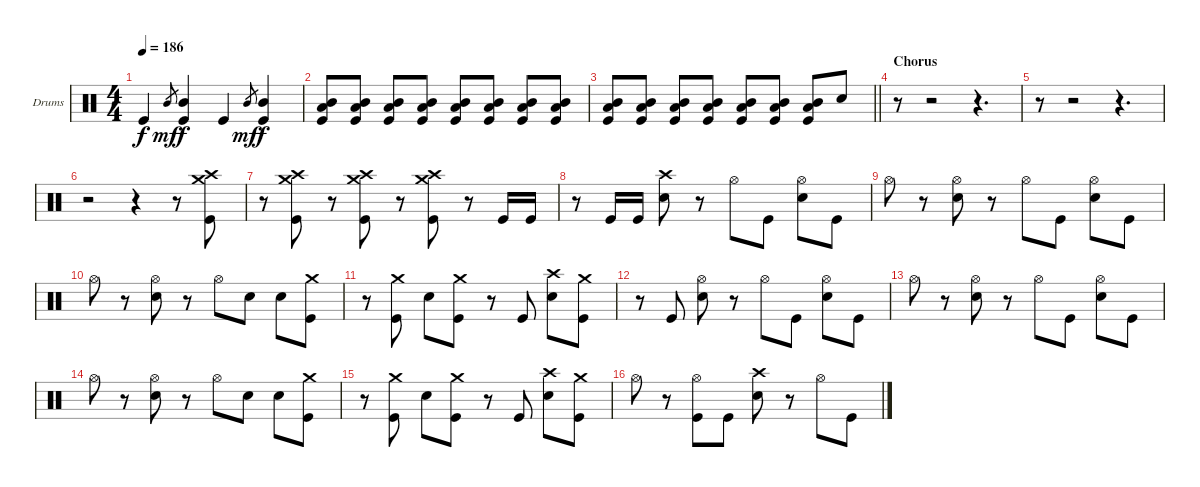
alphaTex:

\bracketExtendMode groupsimilarinstruments
\firstSystemTrackNameOrientation horizontal
\otherSystemsTrackNameOrientation horizontal
\track ("Drumkit" "Drums") {instrument percussion}
\staff {score}
\articulation defaults
\ts (4 4)
\tempo 186
\clef neutral
\scale
0.333333
\ks c "Kick (hit)".4{dy f} "Mid Tom (hit)".8{gr dy mf}
("Mid Tom (hit)" "Kick (hit)").4{dy f} "Kick (hit)".4 "Mid Tom (hit)".8{gr dy mf} ("Mid Tom (hit)" "Kick (hit)").4{dy f} |
\scale
0.333333 ("Mid Tom (hit)" "Low Tom (hit)" "Kick (hit)").8 ("Mid Tom (hit)" "Low Tom (hit)" "Kick (hit)").8 ("Mid Tom (hit)" "Low Tom (hit)" "Kick (hit)").8 ("Mid Tom (hit)" "Low Tom (hit)" "Kick (hit)").8 ("Mid Tom (hit)" "Low Tom (hit)" "Kick (hit)").8 ("Mid Tom (hit)" "Low Tom (hit)" "Kick (hit)").8 ("Mid Tom (hit)" "Low Tom (hit)" "Kick (hit)").8 ("Mid Tom (hit)" "Low Tom (hit)" "Kick (hit)").8 |
\scale
0.333333
\barLineRight lightlight
("Mid Tom (hit)" "Low Tom (hit)" "Kick (hit)").8 ("Mid Tom (hit)" "Low Tom (hit)" "Kick (hit)").8 ("Mid Tom (hit)" "Low Tom (hit)" "Kick (hit)").8 ("Mid Tom (hit)" "Low Tom (hit)" "Kick (hit)").8 ("Mid Tom (hit)" "Low Tom (hit)" "Kick (hit)").8 ("Mid Tom (hit)" "Low Tom (hit)" "Kick (hit)").8 ("Mid Tom (hit)" "Low Tom (hit)" "Kick (hit)").8 "Snare (hit) 2".8 |
\section ("" "Chorus")
\scale
0.333333 r.8 r.2 r.4{d} |
\scale
0.333333 r.8 r.2 r.4{d} |
\scale
0.333333 r.2 r.4 r.8 ("Crash high (hit)" "Crash medium (hit)" "Kick (hit)").8 |
\scale
0.333333 r.8 ("Crash high (hit)" "Crash medium (hit)" "Kick (hit)").8 r.8 ("Crash high (hit)" "Crash medium (hit)" "Kick (hit)").8 r.8 ("Crash high (hit)" "Crash medium (hit)" "Kick (hit)").8 r.8 "Kick (hit)".16 "Kick (hit)".16 |
\scale
0.333333 r.8 "Kick (hit)".16 "Kick (hit)".16 ("Crash high (hit)" "Snare (hit) 2").8 r.8 "Hi-Hat (open)".8 "Kick (hit)".8 ("Hi-Hat (open)" "Snare (hit) 2").8 "Kick (hit)".8 |
\scale
0.333333 "Hi-Hat (open)".8 r.8 ("Hi-Hat (open)" "Snare (hit) 2").8 r.8 "Hi-Hat (open)".8 "Kick (hit)".8 ("Hi-Hat (open)" "Snare (hit) 2").8 "Kick (hit)".8 |
\scale
0.333333 "Hi-Hat (open)".8 r.8 ("Hi-Hat (open)" "Snare (hit) 2").8 r.8 "Hi-Hat (open)".8 "Snare (hit) 2".8 "Snare (hit) 2".8 ("Crash medium (hit)" "Kick (hit)").8 |
\scale
0.333333 r.8 ("Crash medium (hit)" "Kick (hit)").8 "Snare (hit) 2".8 ("Crash medium (hit)" "Kick (hit)").8 r.8 "Kick (hit)".8 ("Crash high (hit)" "Snare (hit) 2").8 ("Crash medium (hit)" "Kick (hit)").8 |
\scale
0.333333 r.8 "Kick (hit)".8 ("Hi-Hat (open)" "Snare (hit) 2").8 r.8 "Hi-Hat (open)".8 "Kick (hit)".8 ("Hi-Hat (open)" "Snare (hit) 2").8 "Kick (hit)".8 |
\scale
0.333333 "Hi-Hat (open)".8 r.8 ("Hi-Hat (open)" "Snare (hit) 2").8 r.8 "Hi-Hat (open)".8 "Kick (hit)".8 ("Hi-Hat (open)" "Snare (hit) 2").8 "Kick (hit)".8 |
\scale
0.333333 "Hi-Hat (open)".8 r.8 ("Hi-Hat (open)" "Snare (hit) 2").8 r.8 "Hi-Hat (open)".8 "Snare (hit) 2".8 "Snare (hit) 2".8 ("Crash medium (hit)" "Kick (hit)").8 |
\scale
0.333333 r.8 ("Crash medium (hit)" "Kick (hit)").8 "Snare (hit) 2".8 ("Crash medium (hit)" "Kick (hit)").8 r.8 "Kick (hit)".8 ("Crash high (hit)" "Snare (hit) 2").8 ("Crash medium (hit)" "Kick (hit)").8 |
\scale
0.333333 "Hi-Hat (open)".8 r.8 ("Hi-Hat (open)" "Kick (hit)").8 "Kick (hit)".8 ("Crash high (hit)" "Snare (hit) 2").8 r.8 "Hi-Hat (open)".8 "Kick (hit)".8
